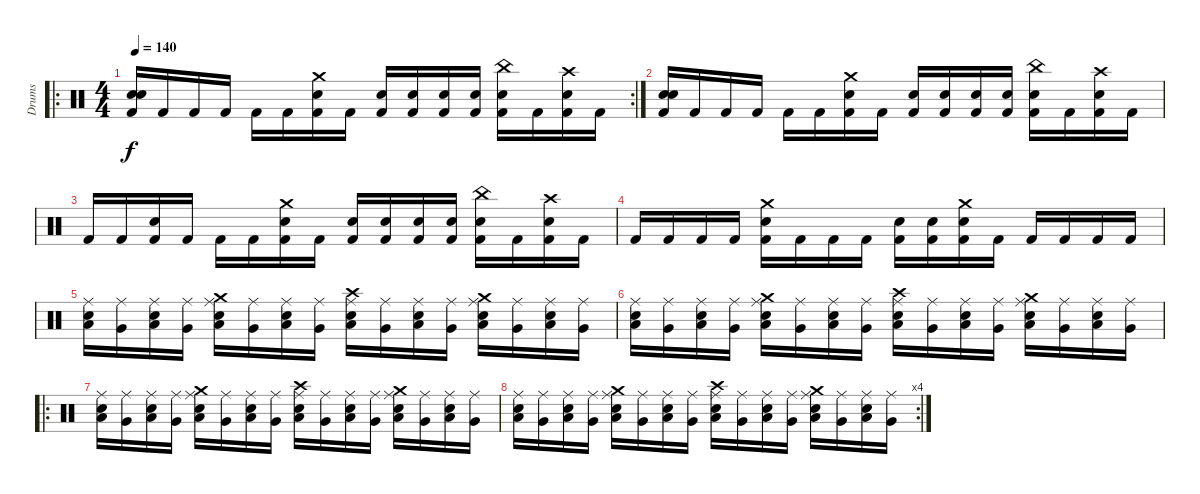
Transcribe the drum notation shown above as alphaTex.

\track ("Drums" "Drums") {instrument percussion}
\staff {score}
\articulation defaults
\ro
\rc 2
\ts (4 4)
\tempo 140
\clef neutral
\ks c
("Electric Snare (hit)" "Snare (hit) 2" "Kick (hit) 2").16{dy f} "Kick (hit) 2".16 "Kick (hit) 2".16 "Kick (hit) 2".16 "Kick (hit) 2".16 "Kick (hit) 2".16 ("Crash medium (hit)" "Electric Snare (hit)" "Kick (hit) 2").16 "Kick (hit) 2".16 ("Electric Snare (hit)" "Kick (hit) 2").16 ("Snare (hit) 2" "Kick (hit) 2").16 ("Electric Snare (hit)" "Kick (hit) 2").16 ("Snare (hit) 2" "Kick (hit) 2").16 ("China (hit)" "Electric Snare (hit)" "Kick (hit) 2").16 "Kick (hit) 2".16 ("Crash high (hit)" "Electric Snare (hit)" "Kick (hit) 2").16 "Kick (hit) 2".16 |
("Electric Snare (hit)" "Snare (hit) 2" "Kick (hit) 2").16 "Kick (hit) 2".16 "Kick (hit) 2".16 "Kick (hit) 2".16 "Kick (hit) 2".16 "Kick (hit) 2".16 ("Crash medium (hit)" "Electric Snare (hit)" "Kick (hit) 2").16 "Kick (hit) 2".16 ("Electric Snare (hit)" "Kick (hit) 2").16 ("Snare (hit) 2" "Kick (hit) 2").16 ("Electric Snare (hit)" "Kick (hit) 2").16 ("Snare (hit) 2" "Kick (hit) 2").16 ("China (hit)" "Electric Snare (hit)" "Kick (hit) 2").16 "Kick (hit) 2".16 ("Crash high (hit)" "Electric Snare (hit)" "Kick (hit) 2").16 "Kick (hit) 2".16 |
"Kick (hit) 2".16 "Kick (hit) 2".16 ("Snare (hit) 2" "Kick (hit) 2").16 "Kick (hit) 2".16 "Kick (hit) 2".16 "Kick (hit) 2".16 ("Crash medium (hit)" "Electric Snare (hit)" "Kick (hit) 2").16 "Kick (hit) 2".16 ("Electric Snare (hit)" "Kick (hit) 2").16 ("Snare (hit) 2" "Kick (hit) 2").16 ("Electric Snare (hit)" "Kick (hit) 2").16 ("Snare (hit) 2" "Kick (hit) 2").16 ("China (hit)" "Electric Snare (hit)" "Kick (hit) 2").16 "Kick (hit) 2".16 ("Crash high (hit)" "Electric Snare (hit)" "Kick (hit) 2").16 "Kick (hit) 2".16 |
"Kick (hit) 2".16 "Kick (hit) 2".16 "Kick (hit) 2".16 "Kick (hit) 2".16 ("Crash medium (hit)" "Electric Snare (hit)" "Kick (hit) 2").16 "Kick (hit) 2".16 "Kick (hit) 2".16 "Kick (hit) 2".16 ("Electric Snare (hit)" "Kick (hit) 2").16 ("Snare (hit) 2" "Kick (hit) 2").16 ("Crash medium (hit)" "Electric Snare (hit)" "Kick (hit) 2").16 "Kick (hit) 2".16 "Kick (hit) 2".16 "Kick (hit) 2".16 "Kick (hit) 2".16 "Kick (hit) 2".16 |
("Ride (middle)" "Low Floor Tom (hit)" "Snare (hit) 2").16 ("Ride (middle)" "Very Low Tom (hit)").16 ("Ride (middle)" "Low Floor Tom (hit)" "Snare (hit) 2").16 ("Ride (middle)" "Very Low Tom (hit)").16 ("Ride (middle)" "Crash medium (hit)" "Low Floor Tom (hit)" "Snare (hit) 2").16 ("Ride (middle)" "Very Low Tom (hit)").16 ("Ride (middle)" "Low Floor Tom (hit)" "Snare (hit) 2").16 ("Ride (middle)" "Very Low Tom (hit)").16 ("Ride (middle)" "Crash high (hit)" "Low Floor Tom (hit)" "Snare (hit) 2").16 ("Ride (middle)" "Very Low Tom (hit)").16 ("Ride (middle)" "Low Floor Tom (hit)" "Snare (hit) 2").16 ("Ride (middle)" "Very Low Tom (hit)").16 ("Ride (middle)" "Crash medium (hit)" "Low Floor Tom (hit)" "Snare (hit) 2").16 ("Ride (middle)" "Very Low Tom (hit)").16 ("Ride (middle)" "Low Floor Tom (hit)" "Snare (hit) 2").16 ("Ride (middle)" "Very Low Tom (hit)").16 |
("Ride (middle)" "Low Floor Tom (hit)" "Snare (hit) 2").16 ("Ride (middle)" "Very Low Tom (hit)").16 ("Ride (middle)" "Low Floor Tom (hit)" "Snare (hit) 2").16 ("Ride (middle)" "Very Low Tom (hit)").16 ("Ride (middle)" "Crash medium (hit)" "Low Floor Tom (hit)" "Snare (hit) 2").16 ("Ride (middle)" "Very Low Tom (hit)").16 ("Ride (middle)" "Low Floor Tom (hit)" "Snare (hit) 2").16 ("Ride (middle)" "Very Low Tom (hit)").16 ("Ride (middle)" "Crash high (hit)" "Low Floor Tom (hit)" "Snare (hit) 2").16 ("Ride (middle)" "Very Low Tom (hit)").16 ("Ride (middle)" "Low Floor Tom (hit)" "Snare (hit) 2").16 ("Ride (middle)" "Very Low Tom (hit)").16 ("Ride (middle)" "Crash medium (hit)" "Low Floor Tom (hit)" "Snare (hit) 2").16 ("Ride (middle)" "Very Low Tom (hit)").16 ("Ride (middle)" "Low Floor Tom (hit)" "Snare (hit) 2").16 ("Ride (middle)" "Very Low Tom (hit)").16 |
\ro
("Ride (middle)" "Low Floor Tom (hit)" "Snare (hit) 2").16 ("Ride (middle)" "Very Low Tom (hit)").16 ("Ride (middle)" "Low Floor Tom (hit)" "Snare (hit) 2").16 ("Ride (middle)" "Very Low Tom (hit)").16 ("Ride (middle)" "Crash medium (hit)" "Low Floor Tom (hit)" "Snare (hit) 2").16 ("Ride (middle)" "Very Low Tom (hit)").16 ("Ride (middle)" "Low Floor Tom (hit)" "Snare (hit) 2").16 ("Ride (middle)" "Very Low Tom (hit)").16 ("Ride (middle)" "Crash high (hit)" "Low Floor Tom (hit)" "Snare (hit) 2").16 ("Ride (middle)" "Very Low Tom (hit)").16 ("Ride (middle)" "Low Floor Tom (hit)" "Snare (hit) 2").16 ("Ride (middle)" "Very Low Tom (hit)").16 ("Ride (middle)" "Crash medium (hit)" "Low Floor Tom (hit)" "Snare (hit) 2").16 ("Ride (middle)" "Very Low Tom (hit)").16 ("Ride (middle)" "Low Floor Tom (hit)" "Snare (hit) 2").16 ("Ride (middle)" "Very Low Tom (hit)").16 |
\rc 4
("Ride (middle)" "Low Floor Tom (hit)" "Snare (hit) 2").16 ("Ride (middle)" "Very Low Tom (hit)").16 ("Ride (middle)" "Low Floor Tom (hit)" "Snare (hit) 2").16 ("Ride (middle)" "Very Low Tom (hit)").16 ("Ride (middle)" "Crash medium (hit)" "Low Floor Tom (hit)" "Snare (hit) 2").16 ("Ride (middle)" "Very Low Tom (hit)").16 ("Ride (middle)" "Low Floor Tom (hit)" "Snare (hit) 2").16 ("Ride (middle)" "Very Low Tom (hit)").16 ("Ride (middle)" "Crash high (hit)" "Low Floor Tom (hit)" "Snare (hit) 2").16 ("Ride (middle)" "Very Low Tom (hit)").16 ("Ride (middle)" "Low Floor Tom (hit)" "Snare (hit) 2").16 ("Ride (middle)" "Very Low Tom (hit)").16 ("Ride (middle)" "Crash medium (hit)" "Low Floor Tom (hit)" "Snare (hit) 2").16 ("Ride (middle)" "Very Low Tom (hit)").16 ("Ride (middle)" "Low Floor Tom (hit)" "Snare (hit) 2").16 ("Ride (middle)" "Very Low Tom (hit)").16
